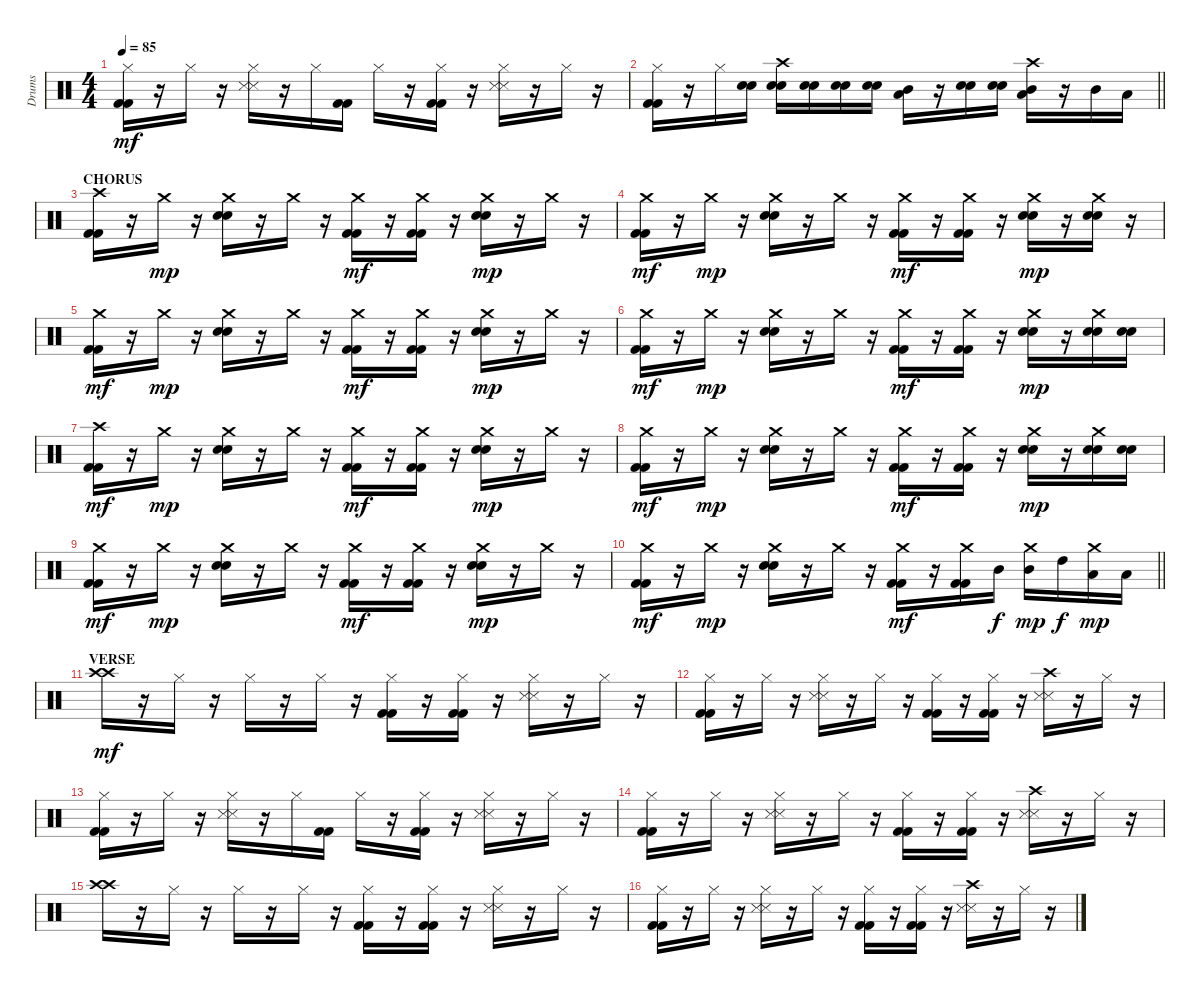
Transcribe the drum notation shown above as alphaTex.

\track ("Drums" "Drums") {instrument percussion}
\staff {score}
\articulation defaults
\ts (4 4)
\tempo 85
\clef neutral
\ks c
("Hi-Hat (closed)" "Kick (hit) 2" "Kick (hit) 2").16{dy mf} r.16 "Hi-Hat (closed)".16 r.16 ("Hi-Hat (closed)" "Snare (side stick) 3" "Snare (side stick) 3").16 r.16 "Hi-Hat (closed)".16 ("Kick (hit) 2" "Kick (hit) 2").16 "Hi-Hat (closed)".16 r.16 ("Hi-Hat (closed)" "Kick (hit) 2" "Kick (hit) 2").16 r.16 ("Hi-Hat (closed)" "Snare (side stick) 3" "Snare (side stick) 3").16 r.16 "Hi-Hat (closed)".16 r.16 |
\barLineRight lightlight
("Hi-Hat (closed)" "Kick (hit) 2" "Kick (hit) 2").16 r.16 "Hi-Hat (closed)".16 ("Electric Snare (hit)" "Electric Snare (hit)").16 ("Crash high (hit)" "Electric Snare (hit)" "Electric Snare (hit)").16 ("Electric Snare (hit)" "Electric Snare (hit)").16 ("Electric Snare (hit)" "Electric Snare (hit)").16 ("Electric Snare (hit)" "Electric Snare (hit)").16 ("Low Tom (hit)" "Mid Tom (hit)").16 r.16 ("Electric Snare (hit)" "Electric Snare (hit)").16 ("Electric Snare (hit)" "Electric Snare (hit)").16 ("Crash high (hit)" "Low Tom (hit)" "Mid Tom (hit)").16 r.16 "Mid Tom (hit)".16 "Low Tom (hit)".16 |
\section ("" "CHORUS")
("Crash high (hit)" "Kick (hit) 2" "Kick (hit) 2").16 r.16 "Crash medium (hit)".16{dy mp} r.16 ("Crash medium (hit)" "Snare (hit) 2" "Electric Snare (hit)").16 r.16 "Crash medium (hit)".16 r.16 ("Crash medium (hit)" "Kick (hit) 2" "Kick (hit) 2").16{dy mf} r.16 ("Crash medium (hit)" "Kick (hit) 2" "Kick (hit) 2").16 r.16 ("Crash medium (hit)" "Snare (hit) 2" "Electric Snare (hit)").16{dy mp} r.16 "Crash medium (hit)".16 r.16 |
("Crash medium (hit)" "Kick (hit) 2" "Kick (hit) 2").16{dy mf} r.16 "Crash medium (hit)".16{dy mp} r.16 ("Crash medium (hit)" "Snare (hit) 2" "Electric Snare (hit)").16 r.16 "Crash medium (hit)".16 r.16 ("Crash medium (hit)" "Kick (hit) 2" "Kick (hit) 2").16{dy mf} r.16 ("Crash medium (hit)" "Kick (hit) 2" "Kick (hit) 2").16 r.16 ("Crash medium (hit)" "Snare (hit) 2" "Electric Snare (hit)").16{dy mp} r.16 ("Crash medium (hit)" "Snare (hit) 2" "Electric Snare (hit)").16 r.16 |
("Crash medium (hit)" "Kick (hit) 2" "Kick (hit) 2").16{dy mf} r.16 "Crash medium (hit)".16{dy mp} r.16 ("Crash medium (hit)" "Snare (hit) 2" "Electric Snare (hit)").16 r.16 "Crash medium (hit)".16 r.16 ("Crash medium (hit)" "Kick (hit) 2" "Kick (hit) 2").16{dy mf} r.16 ("Crash medium (hit)" "Kick (hit) 2" "Kick (hit) 2").16 r.16 ("Crash medium (hit)" "Snare (hit) 2" "Electric Snare (hit)").16{dy mp} r.16 "Crash medium (hit)".16 r.16 |
("Crash medium (hit)" "Kick (hit) 2" "Kick (hit) 2").16{dy mf} r.16 "Crash medium (hit)".16{dy mp} r.16 ("Crash medium (hit)" "Snare (hit) 2" "Electric Snare (hit)").16 r.16 "Crash medium (hit)".16 r.16 ("Crash medium (hit)" "Kick (hit) 2" "Kick (hit) 2").16{dy mf} r.16 ("Crash medium (hit)" "Kick (hit) 2" "Kick (hit) 2").16 r.16 ("Crash medium (hit)" "Snare (hit) 2" "Electric Snare (hit)").16{dy mp} r.16 ("Crash medium (hit)" "Snare (hit) 2" "Electric Snare (hit)").16 ("Snare (hit) 2" "Electric Snare (hit)").16 |
("Crash high (hit)" "Kick (hit) 2" "Kick (hit) 2").16{dy mf} r.16 "Crash medium (hit)".16{dy mp} r.16 ("Crash medium (hit)" "Snare (hit) 2" "Electric Snare (hit)").16 r.16 "Crash medium (hit)".16 r.16 ("Crash medium (hit)" "Kick (hit) 2" "Kick (hit) 2").16{dy mf} r.16 ("Crash medium (hit)" "Kick (hit) 2" "Kick (hit) 2").16 r.16 ("Crash medium (hit)" "Snare (hit) 2" "Electric Snare (hit)").16{dy mp} r.16 "Crash medium (hit)".16 r.16 |
("Crash medium (hit)" "Kick (hit) 2" "Kick (hit) 2").16{dy mf} r.16 "Crash medium (hit)".16{dy mp} r.16 ("Crash medium (hit)" "Snare (hit) 2" "Electric Snare (hit)").16 r.16 "Crash medium (hit)".16 r.16 ("Crash medium (hit)" "Kick (hit) 2" "Kick (hit) 2").16{dy mf} r.16 ("Crash medium (hit)" "Kick (hit) 2" "Kick (hit) 2").16 r.16 ("Crash medium (hit)" "Snare (hit) 2" "Electric Snare (hit)").16{dy mp} r.16 ("Crash medium (hit)" "Snare (hit) 2" "Electric Snare (hit)").16 ("Snare (hit) 2" "Electric Snare (hit)").16 |
("Crash medium (hit)" "Kick (hit) 2" "Kick (hit) 2").16{dy mf} r.16 "Crash medium (hit)".16{dy mp} r.16 ("Crash medium (hit)" "Snare (hit) 2" "Electric Snare (hit)").16 r.16 "Crash medium (hit)".16 r.16 ("Crash medium (hit)" "Kick (hit) 2" "Kick (hit) 2").16{dy mf} r.16 ("Crash medium (hit)" "Kick (hit) 2" "Kick (hit) 2").16 r.16 ("Crash medium (hit)" "Snare (hit) 2" "Electric Snare (hit)").16{dy mp} r.16 "Crash medium (hit)".16 r.16 |
\barLineRight lightlight
("Crash medium (hit)" "Kick (hit) 2" "Kick (hit) 2").16{dy mf} r.16 "Crash medium (hit)".16{dy mp} r.16 ("Crash medium (hit)" "Snare (hit) 2" "Electric Snare (hit)").16 r.16 "Crash medium (hit)".16 r.16 ("Crash medium (hit)" "Kick (hit) 2" "Kick (hit) 2").16{dy mf} r.16 ("Crash medium (hit)" "Kick (hit) 2" "Kick (hit) 2").16 "Mid Tom (hit)".16{dy f} ("Crash medium (hit)" "Mid Tom (hit)").16{dy mp} "High Tom (hit)".16{dy f} ("Crash medium (hit)" "Low Tom (hit)").16{dy mp} "Low Tom (hit)".16 |
\section ("" "VERSE ")
("Crash high (hit)" "Crash high (hit)").16{dy mf} r.16 "Hi-Hat (closed)".16 r.16 "Hi-Hat (closed)".16 r.16 "Hi-Hat (closed)".16 r.16 ("Hi-Hat (closed)" "Kick (hit) 2" "Kick (hit) 2").16 r.16 ("Hi-Hat (closed)" "Kick (hit) 2" "Kick (hit) 2").16 r.16 ("Hi-Hat (closed)" "Snare (side stick) 3" "Snare (side stick) 3").16 r.16 "Hi-Hat (closed)".16 r.16 |
("Hi-Hat (closed)" "Kick (hit) 2" "Kick (hit) 2").16 r.16 "Hi-Hat (closed)".16 r.16 ("Hi-Hat (closed)" "Snare (side stick) 3" "Snare (side stick) 3").16 r.16 "Hi-Hat (closed)".16 r.16 ("Hi-Hat (closed)" "Kick (hit) 2" "Kick (hit) 2").16 r.16 ("Hi-Hat (closed)" "Kick (hit) 2" "Kick (hit) 2").16 r.16 ("Crash high (hit)" "Snare (side stick) 3" "Snare (side stick) 3").16 r.16 "Hi-Hat (closed)".16 r.16 |
("Hi-Hat (closed)" "Kick (hit) 2" "Kick (hit) 2").16 r.16 "Hi-Hat (closed)".16 r.16 ("Hi-Hat (closed)" "Snare (side stick) 3" "Snare (side stick) 3").16 r.16 "Hi-Hat (closed)".16 ("Kick (hit) 2" "Kick (hit) 2").16 "Hi-Hat (closed)".16 r.16 ("Hi-Hat (closed)" "Kick (hit) 2" "Kick (hit) 2").16 r.16 ("Hi-Hat (closed)" "Snare (side stick) 3" "Snare (side stick) 3").16 r.16 "Hi-Hat (closed)".16 r.16 |
("Hi-Hat (closed)" "Kick (hit) 2" "Kick (hit) 2").16 r.16 "Hi-Hat (closed)".16 r.16 ("Hi-Hat (closed)" "Snare (side stick) 3" "Snare (side stick) 3").16 r.16 "Hi-Hat (closed)".16 r.16 ("Hi-Hat (closed)" "Kick (hit) 2" "Kick (hit) 2").16 r.16 ("Hi-Hat (closed)" "Kick (hit) 2" "Kick (hit) 2").16 r.16 ("Crash high (hit)" "Snare (side stick) 3" "Snare (side stick) 3").16 r.16 "Hi-Hat (closed)".16 r.16 |
("Crash high (hit)" "Crash high (hit)").16 r.16 "Hi-Hat (closed)".16 r.16 "Hi-Hat (closed)".16 r.16 "Hi-Hat (closed)".16 r.16 ("Hi-Hat (closed)" "Kick (hit) 2" "Kick (hit) 2").16 r.16 ("Hi-Hat (closed)" "Kick (hit) 2" "Kick (hit) 2").16 r.16 ("Hi-Hat (closed)" "Snare (side stick) 3" "Snare (side stick) 3").16 r.16 "Hi-Hat (closed)".16 r.16 |
("Hi-Hat (closed)" "Kick (hit) 2" "Kick (hit) 2").16 r.16 "Hi-Hat (closed)".16 r.16 ("Hi-Hat (closed)" "Snare (side stick) 3" "Snare (side stick) 3").16 r.16 "Hi-Hat (closed)".16 r.16 ("Hi-Hat (closed)" "Kick (hit) 2" "Kick (hit) 2").16 r.16 ("Hi-Hat (closed)" "Kick (hit) 2" "Kick (hit) 2").16 r.16 ("Crash high (hit)" "Snare (side stick) 3" "Snare (side stick) 3").16 r.16 "Hi-Hat (closed)".16 r.16
